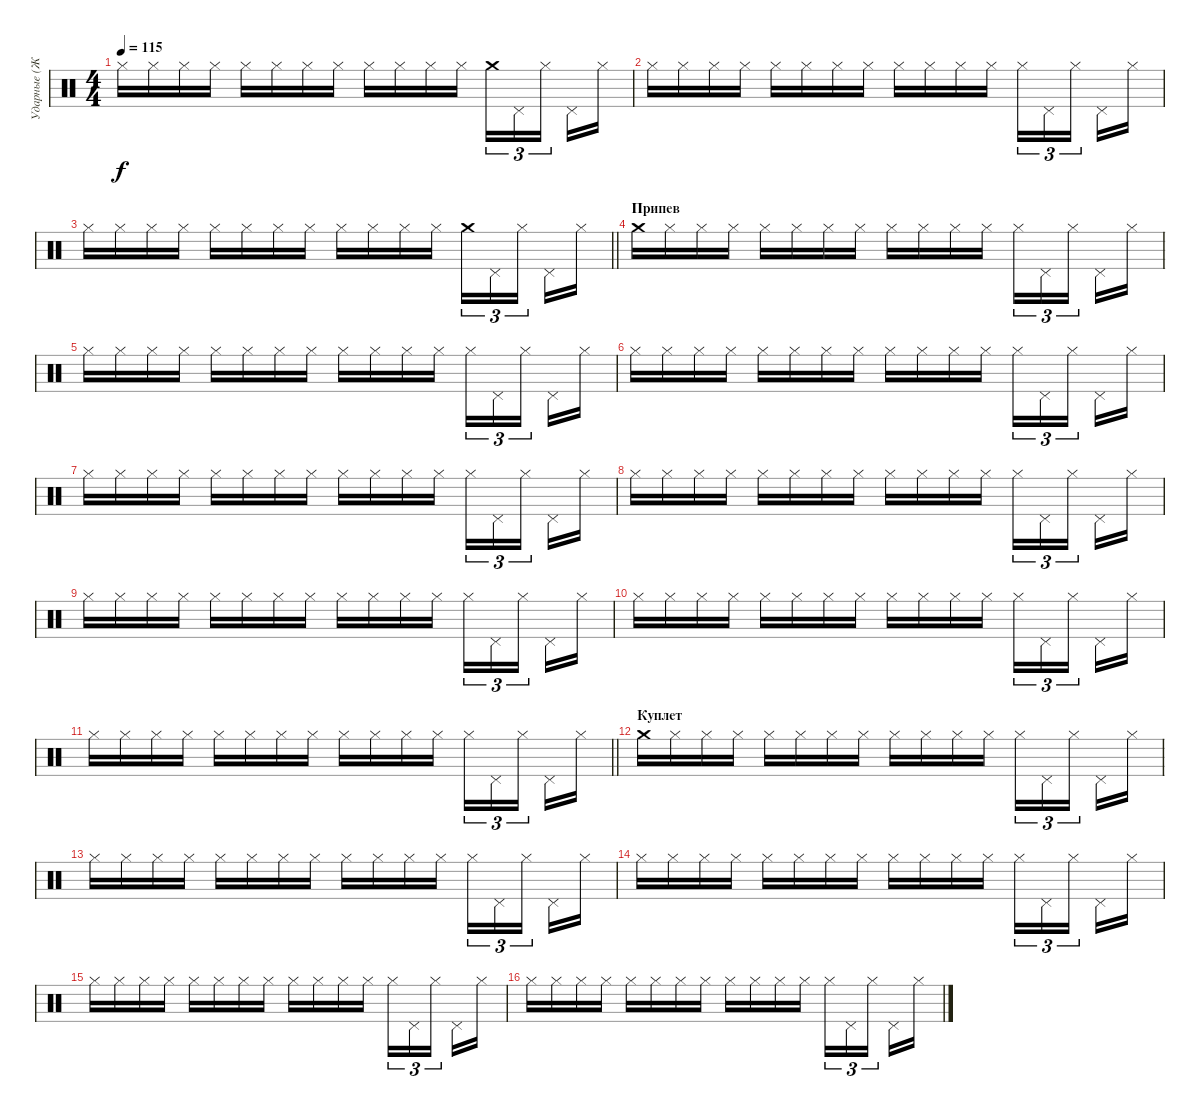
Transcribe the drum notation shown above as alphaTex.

\track ("Ударные (Железо)" "Ударные (Ж") {instrument percussion}
\staff {score}
\articulation defaults
\ts (4 4)
\tempo 115
\clef neutral
\ks c "Hi-Hat (closed)".16{dy f} "Hi-Hat (closed)".16 "Hi-Hat (closed)".16 "Hi-Hat (closed)".16 "Hi-Hat (closed)".16 "Hi-Hat (closed)".16 "Hi-Hat (closed)".16 "Hi-Hat (closed)".16 "Hi-Hat (closed)".16 "Hi-Hat (closed)".16 "Hi-Hat (closed)".16 "Hi-Hat (closed)".16 "Crash medium (hit)".16{tu (3 2)} "Pedal Hi-Hat (hit)".16{tu (3 2)} "Hi-Hat (closed)".16{tu (3 2) beam splitsecondary} "Pedal Hi-Hat (hit)".16 "Hi-Hat (closed)".16
|
"Hi-Hat (closed)".16 "Hi-Hat (closed)".16 "Hi-Hat (closed)".16 "Hi-Hat (closed)".16 "Hi-Hat (closed)".16 "Hi-Hat (closed)".16 "Hi-Hat (closed)".16 "Hi-Hat (closed)".16 "Hi-Hat (closed)".16 "Hi-Hat (closed)".16 "Hi-Hat (closed)".16 "Hi-Hat (closed)".16 "Hi-Hat (closed)".16{tu (3 2)} "Pedal Hi-Hat (hit)".16{tu (3 2)} "Hi-Hat (closed)".16{tu (3 2) beam splitsecondary} "Pedal Hi-Hat (hit)".16 "Hi-Hat (closed)".16 |
\barLineRight lightlight "Hi-Hat (closed)".16 "Hi-Hat (closed)".16 "Hi-Hat (closed)".16 "Hi-Hat (closed)".16 "Hi-Hat (closed)".16 "Hi-Hat (closed)".16 "Hi-Hat (closed)".16 "Hi-Hat (closed)".16 "Hi-Hat (closed)".16 "Hi-Hat (closed)".16 "Hi-Hat (closed)".16 "Hi-Hat (closed)".16 "Crash medium (hit)".16{tu (3 2)} "Pedal Hi-Hat (hit)".16{tu (3 2)} "Hi-Hat (closed)".16{tu (3 2) beam splitsecondary} "Pedal Hi-Hat (hit)".16 "Hi-Hat (closed)".16
|
\section ("" "Припев")
"Crash medium (hit)".16 "Hi-Hat (closed)".16 "Hi-Hat (closed)".16 "Hi-Hat (closed)".16 "Hi-Hat (closed)".16 "Hi-Hat (closed)".16 "Hi-Hat (closed)".16 "Hi-Hat (closed)".16 "Hi-Hat (closed)".16 "Hi-Hat (closed)".16 "Hi-Hat (closed)".16 "Hi-Hat (closed)".16 "Hi-Hat (closed)".16{tu (3 2)} "Pedal Hi-Hat (hit)".16{tu (3 2)} "Hi-Hat (closed)".16{tu (3 2) beam splitsecondary} "Pedal Hi-Hat (hit)".16 "Hi-Hat (closed)".16 |
"Hi-Hat (closed)".16 "Hi-Hat (closed)".16 "Hi-Hat (closed)".16 "Hi-Hat (closed)".16 "Hi-Hat (closed)".16 "Hi-Hat (closed)".16 "Hi-Hat (closed)".16 "Hi-Hat (closed)".16 "Hi-Hat (closed)".16 "Hi-Hat (closed)".16 "Hi-Hat (closed)".16 "Hi-Hat (closed)".16 "Hi-Hat (closed)".16{tu (3 2)} "Pedal Hi-Hat (hit)".16{tu (3 2)} "Hi-Hat (closed)".16{tu (3 2) beam splitsecondary} "Pedal Hi-Hat (hit)".16 "Hi-Hat (closed)".16 |
"Hi-Hat (closed)".16 "Hi-Hat (closed)".16 "Hi-Hat (closed)".16 "Hi-Hat (closed)".16 "Hi-Hat (closed)".16 "Hi-Hat (closed)".16 "Hi-Hat (closed)".16 "Hi-Hat (closed)".16 "Hi-Hat (closed)".16 "Hi-Hat (closed)".16 "Hi-Hat (closed)".16 "Hi-Hat (closed)".16 "Hi-Hat (closed)".16{tu (3 2)} "Pedal Hi-Hat (hit)".16{tu (3 2)} "Hi-Hat (closed)".16{tu (3 2) beam splitsecondary} "Pedal Hi-Hat (hit)".16 "Hi-Hat (closed)".16 |
"Hi-Hat (closed)".16 "Hi-Hat (closed)".16 "Hi-Hat (closed)".16 "Hi-Hat (closed)".16 "Hi-Hat (closed)".16 "Hi-Hat (closed)".16 "Hi-Hat (closed)".16 "Hi-Hat (closed)".16 "Hi-Hat (closed)".16 "Hi-Hat (closed)".16 "Hi-Hat (closed)".16 "Hi-Hat (closed)".16 "Hi-Hat (closed)".16{tu (3 2)} "Pedal Hi-Hat (hit)".16{tu (3 2)} "Hi-Hat (closed)".16{tu (3 2) beam splitsecondary} "Pedal Hi-Hat (hit)".16 "Hi-Hat (closed)".16 |
"Hi-Hat (closed)".16 "Hi-Hat (closed)".16 "Hi-Hat (closed)".16 "Hi-Hat (closed)".16 "Hi-Hat (closed)".16 "Hi-Hat (closed)".16 "Hi-Hat (closed)".16 "Hi-Hat (closed)".16 "Hi-Hat (closed)".16 "Hi-Hat (closed)".16 "Hi-Hat (closed)".16 "Hi-Hat (closed)".16 "Hi-Hat (closed)".16{tu (3 2)} "Pedal Hi-Hat (hit)".16{tu (3 2)} "Hi-Hat (closed)".16{tu (3 2) beam splitsecondary} "Pedal Hi-Hat (hit)".16 "Hi-Hat (closed)".16 |
"Hi-Hat (closed)".16 "Hi-Hat (closed)".16 "Hi-Hat (closed)".16 "Hi-Hat (closed)".16 "Hi-Hat (closed)".16 "Hi-Hat (closed)".16 "Hi-Hat (closed)".16 "Hi-Hat (closed)".16 "Hi-Hat (closed)".16 "Hi-Hat (closed)".16 "Hi-Hat (closed)".16 "Hi-Hat (closed)".16 "Hi-Hat (closed)".16{tu (3 2)} "Pedal Hi-Hat (hit)".16{tu (3 2)} "Hi-Hat (closed)".16{tu (3 2) beam splitsecondary} "Pedal Hi-Hat (hit)".16 "Hi-Hat (closed)".16 |
"Hi-Hat (closed)".16 "Hi-Hat (closed)".16 "Hi-Hat (closed)".16 "Hi-Hat (closed)".16 "Hi-Hat (closed)".16 "Hi-Hat (closed)".16 "Hi-Hat (closed)".16 "Hi-Hat (closed)".16 "Hi-Hat (closed)".16 "Hi-Hat (closed)".16 "Hi-Hat (closed)".16 "Hi-Hat (closed)".16 "Hi-Hat (closed)".16{tu (3 2)} "Pedal Hi-Hat (hit)".16{tu (3 2)} "Hi-Hat (closed)".16{tu (3 2) beam splitsecondary} "Pedal Hi-Hat (hit)".16 "Hi-Hat (closed)".16 |
\barLineRight lightlight "Hi-Hat (closed)".16 "Hi-Hat (closed)".16 "Hi-Hat (closed)".16 "Hi-Hat (closed)".16 "Hi-Hat (closed)".16 "Hi-Hat (closed)".16 "Hi-Hat (closed)".16 "Hi-Hat (closed)".16 "Hi-Hat (closed)".16 "Hi-Hat (closed)".16 "Hi-Hat (closed)".16 "Hi-Hat (closed)".16 "Hi-Hat (closed)".16{tu (3 2)} "Pedal Hi-Hat (hit)".16{tu (3 2)} "Hi-Hat (closed)".16{tu (3 2) beam splitsecondary} "Pedal Hi-Hat (hit)".16 "Hi-Hat (closed)".16
|
\section ("" "Куплет")
"Crash medium (hit)".16 "Hi-Hat (closed)".16 "Hi-Hat (closed)".16 "Hi-Hat (closed)".16 "Hi-Hat (closed)".16 "Hi-Hat (closed)".16 "Hi-Hat (closed)".16 "Hi-Hat (closed)".16 "Hi-Hat (closed)".16 "Hi-Hat (closed)".16 "Hi-Hat (closed)".16 "Hi-Hat (closed)".16 "Hi-Hat (closed)".16{tu (3 2)} "Pedal Hi-Hat (hit)".16{tu (3 2)} "Hi-Hat (closed)".16{tu (3 2) beam splitsecondary} "Pedal Hi-Hat (hit)".16 "Hi-Hat (closed)".16 |
"Hi-Hat (closed)".16 "Hi-Hat (closed)".16 "Hi-Hat (closed)".16 "Hi-Hat (closed)".16 "Hi-Hat (closed)".16 "Hi-Hat (closed)".16 "Hi-Hat (closed)".16 "Hi-Hat (closed)".16 "Hi-Hat (closed)".16 "Hi-Hat (closed)".16 "Hi-Hat (closed)".16 "Hi-Hat (closed)".16 "Hi-Hat (closed)".16{tu (3 2)} "Pedal Hi-Hat (hit)".16{tu (3 2)} "Hi-Hat (closed)".16{tu (3 2) beam splitsecondary} "Pedal Hi-Hat (hit)".16 "Hi-Hat (closed)".16 |
"Hi-Hat (closed)".16 "Hi-Hat (closed)".16 "Hi-Hat (closed)".16 "Hi-Hat (closed)".16 "Hi-Hat (closed)".16 "Hi-Hat (closed)".16 "Hi-Hat (closed)".16 "Hi-Hat (closed)".16 "Hi-Hat (closed)".16 "Hi-Hat (closed)".16 "Hi-Hat (closed)".16 "Hi-Hat (closed)".16 "Hi-Hat (closed)".16{tu (3 2)} "Pedal Hi-Hat (hit)".16{tu (3 2)} "Hi-Hat (closed)".16{tu (3 2) beam splitsecondary} "Pedal Hi-Hat (hit)".16 "Hi-Hat (closed)".16 |
"Hi-Hat (closed)".16 "Hi-Hat (closed)".16 "Hi-Hat (closed)".16 "Hi-Hat (closed)".16 "Hi-Hat (closed)".16 "Hi-Hat (closed)".16 "Hi-Hat (closed)".16 "Hi-Hat (closed)".16 "Hi-Hat (closed)".16 "Hi-Hat (closed)".16 "Hi-Hat (closed)".16 "Hi-Hat (closed)".16 "Hi-Hat (closed)".16{tu (3 2)} "Pedal Hi-Hat (hit)".16{tu (3 2)} "Hi-Hat (closed)".16{tu (3 2) beam splitsecondary} "Pedal Hi-Hat (hit)".16 "Hi-Hat (closed)".16 |
"Hi-Hat (closed)".16 "Hi-Hat (closed)".16 "Hi-Hat (closed)".16 "Hi-Hat (closed)".16 "Hi-Hat (closed)".16 "Hi-Hat (closed)".16 "Hi-Hat (closed)".16 "Hi-Hat (closed)".16 "Hi-Hat (closed)".16 "Hi-Hat (closed)".16 "Hi-Hat (closed)".16 "Hi-Hat (closed)".16 "Hi-Hat (closed)".16{tu (3 2)} "Pedal Hi-Hat (hit)".16{tu (3 2)} "Hi-Hat (closed)".16{tu (3 2) beam splitsecondary} "Pedal Hi-Hat (hit)".16 "Hi-Hat (closed)".16
